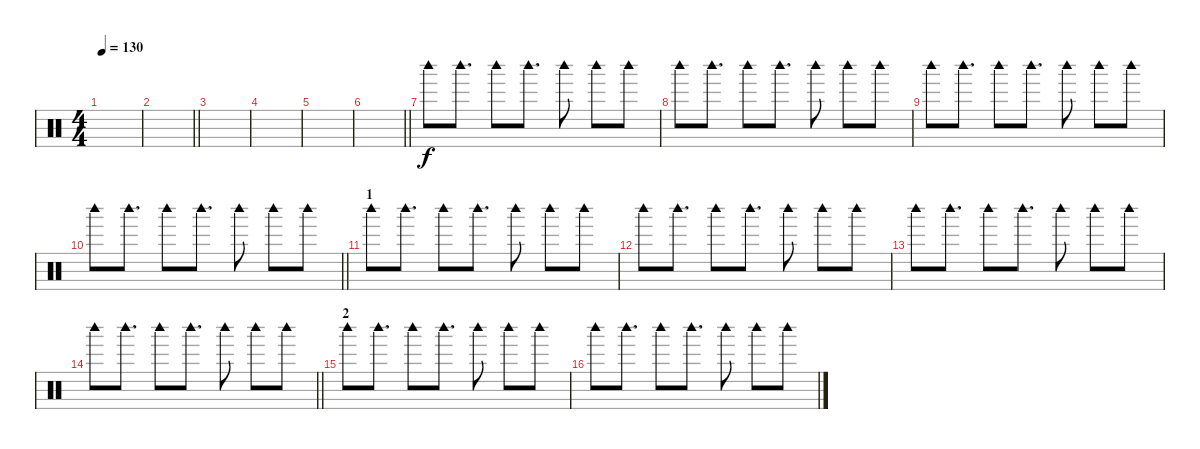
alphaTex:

\track "" {instrument percussion}
\staff {score}
\articulation defaults
\ts (4 4)
\tempo 130
\clef neutral
\ks c
|
\barLineRight lightlight
|
\section ("" "")
|
|
|
\barLineRight lightlight
|
\section ("" "")
"Woodblock high (hit)".8 "Woodblock high (hit)".8{d} "Woodblock high (hit)".8 "Woodblock high (hit)".8{d} "Woodblock high (hit)".8 "Woodblock high (hit)".8 "Woodblock high (hit)".8 |
"Woodblock high (hit)".8 "Woodblock high (hit)".8{d} "Woodblock high (hit)".8 "Woodblock high (hit)".8{d} "Woodblock high (hit)".8 "Woodblock high (hit)".8 "Woodblock high (hit)".8 |
"Woodblock high (hit)".8 "Woodblock high (hit)".8{d} "Woodblock high (hit)".8 "Woodblock high (hit)".8{d} "Woodblock high (hit)".8 "Woodblock high (hit)".8 "Woodblock high (hit)".8 |
\barLineRight lightlight "Woodblock high (hit)".8 "Woodblock high (hit)".8{d} "Woodblock high (hit)".8 "Woodblock high (hit)".8{d} "Woodblock high (hit)".8 "Woodblock high (hit)".8 "Woodblock high (hit)".8
|
\section ("" "1")
"Woodblock high (hit)".8 "Woodblock high (hit)".8{d} "Woodblock high (hit)".8 "Woodblock high (hit)".8{d} "Woodblock high (hit)".8 "Woodblock high (hit)".8 "Woodblock high (hit)".8 |
"Woodblock high (hit)".8 "Woodblock high (hit)".8{d} "Woodblock high (hit)".8 "Woodblock high (hit)".8{d} "Woodblock high (hit)".8 "Woodblock high (hit)".8 "Woodblock high (hit)".8 |
"Woodblock high (hit)".8 "Woodblock high (hit)".8{d} "Woodblock high (hit)".8 "Woodblock high (hit)".8{d} "Woodblock high (hit)".8 "Woodblock high (hit)".8 "Woodblock high (hit)".8 |
\barLineRight lightlight "Woodblock high (hit)".8 "Woodblock high (hit)".8{d} "Woodblock high (hit)".8 "Woodblock high (hit)".8{d} "Woodblock high (hit)".8 "Woodblock high (hit)".8 "Woodblock high (hit)".8
|
\section ("" "2")
"Woodblock high (hit)".8 "Woodblock high (hit)".8{d} "Woodblock high (hit)".8 "Woodblock high (hit)".8{d} "Woodblock high (hit)".8 "Woodblock high (hit)".8 "Woodblock high (hit)".8 |
"Woodblock high (hit)".8 "Woodblock high (hit)".8{d} "Woodblock high (hit)".8 "Woodblock high (hit)".8{d} "Woodblock high (hit)".8 "Woodblock high (hit)".8 "Woodblock high (hit)".8
